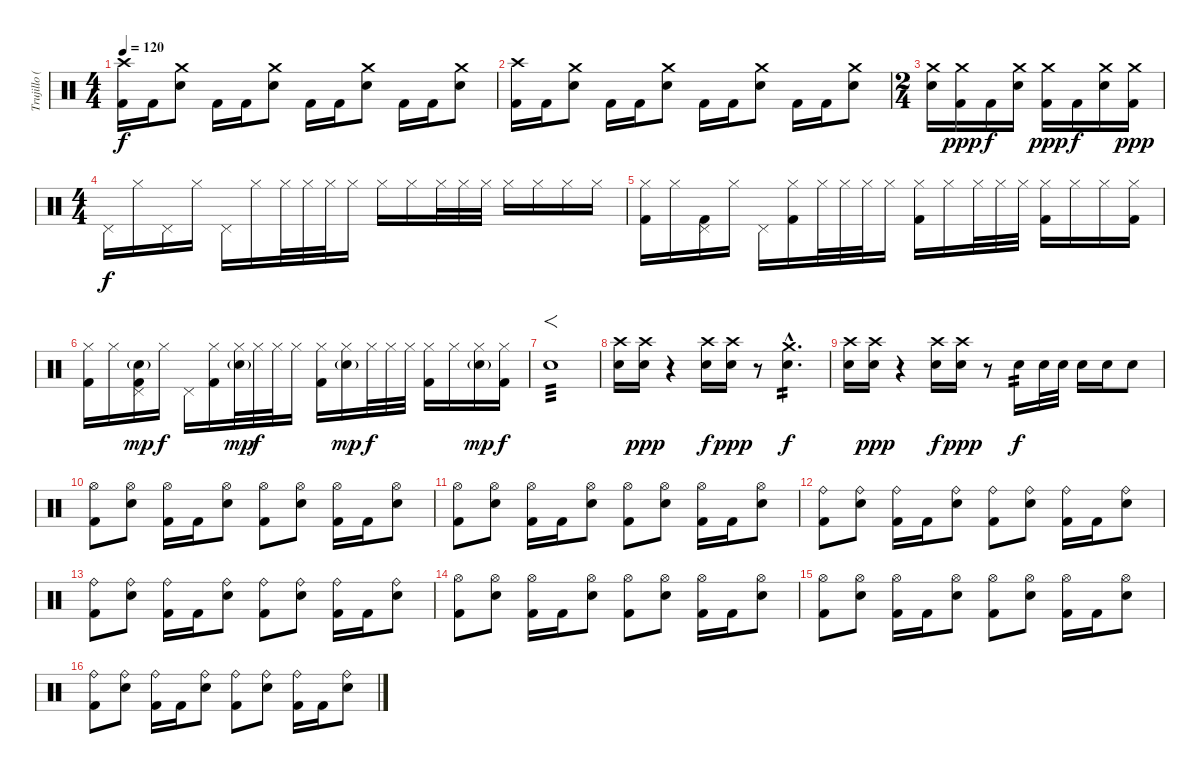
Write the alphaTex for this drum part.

\track ("Trujillo (Percussion)" "Trujillo (") {instrument percussion}
\staff {score}
\articulation defaults
\ts (4 4)
\tempo 120
\clef neutral
\ks c
("Crash high (hit)" "Kick (hit) 2").16{dy f} "Kick (hit) 2".16 ("Crash medium (hit)" "Electric Snare (hit)").8 "Kick (hit) 2".16 "Kick (hit) 2".16 ("Crash medium (hit)" "Electric Snare (hit)").8 "Kick (hit) 2".16 "Kick (hit) 2".16 ("Crash medium (hit)" "Electric Snare (hit)").8 "Kick (hit) 2".16 "Kick (hit) 2".16 ("Crash medium (hit)" "Electric Snare (hit)").8 |
("Crash high (hit)" "Kick (hit) 2").16 "Kick (hit) 2".16 ("Crash medium (hit)" "Electric Snare (hit)").8 "Kick (hit) 2".16 "Kick (hit) 2".16 ("Crash medium (hit)" "Electric Snare (hit)").8 "Kick (hit) 2".16 "Kick (hit) 2".16 ("Crash medium (hit)" "Electric Snare (hit)").8 "Kick (hit) 2".16 "Kick (hit) 2".16 ("Crash medium (hit)" "Electric Snare (hit)").8 |
\ts (2 4)
("Crash medium (hit)" "Electric Snare (hit)").16 ("Crash medium (hit)" "Kick (hit) 2").16{dy ppp} "Kick (hit) 2".16{dy f} ("Crash medium (hit)" "Electric Snare (hit)").16 ("Crash medium (hit)" "Kick (hit) 2").16{dy ppp} "Kick (hit) 2".16{dy f} ("Crash medium (hit)" "Electric Snare (hit)").16 ("Crash medium (hit)" "Kick (hit) 2").16{dy ppp} |
\ts (4 4)
"Pedal Hi-Hat (hit)".16{dy f} "Hi-Hat (closed)".16 "Pedal Hi-Hat (hit)".16 "Hi-Hat (closed)".16 "Pedal Hi-Hat (hit)".16 "Hi-Hat (closed)".16 "Hi-Hat (closed)".32 "Hi-Hat (closed)".32 "Hi-Hat (closed)".32 "Hi-Hat (closed)".16 "Hi-Hat (closed)".16 "Hi-Hat (closed)".16 "Hi-Hat (closed)".32 "Hi-Hat (closed)".32 "Hi-Hat (closed)".32 "Hi-Hat (closed)".16 "Hi-Hat (closed)".16 "Hi-Hat (closed)".16 "Hi-Hat (closed)".16 |
("Hi-Hat (closed)" "Kick (hit) 2").16 "Hi-Hat (closed)".16 ("Pedal Hi-Hat (hit)" "Kick (hit) 2").16 "Hi-Hat (closed)".16 "Pedal Hi-Hat (hit)".16 ("Hi-Hat (closed)" "Kick (hit) 2").16 "Hi-Hat (closed)".32 "Hi-Hat (closed)".32 "Hi-Hat (closed)".32 "Hi-Hat (closed)".16 ("Hi-Hat (closed)" "Kick (hit) 2").16 "Hi-Hat (closed)".16 "Hi-Hat (closed)".32 "Hi-Hat (closed)".32 "Hi-Hat (closed)".32 ("Hi-Hat (closed)" "Kick (hit) 2").16 "Hi-Hat (closed)".16 "Hi-Hat (closed)".16 ("Hi-Hat (closed)" "Kick (hit) 2").16 |
("Hi-Hat (closed)" "Kick (hit) 2").16 "Hi-Hat (closed)".16 ("Pedal Hi-Hat (hit)" "Electric Snare (hit)"{g} "Kick (hit) 2").16{dy mp} "Hi-Hat (closed)".16{dy f} "Pedal Hi-Hat (hit)".16 ("Hi-Hat (closed)" "Kick (hit) 2").16 ("Hi-Hat (closed)" "Electric Snare (hit)"{g}).32{dy mp} "Hi-Hat (closed)".32{dy f} "Hi-Hat (closed)".32 "Hi-Hat (closed)".16 ("Hi-Hat (closed)" "Kick (hit) 2").16 ("Hi-Hat (closed)" "Electric Snare (hit)"{g}).16{dy mp} "Hi-Hat (closed)".32{dy f} "Hi-Hat (closed)".32 "Hi-Hat (closed)".32 ("Hi-Hat (closed)" "Kick (hit) 2").16 "Hi-Hat (closed)".16 ("Hi-Hat (closed)" "Electric Snare (hit)"{g}).16{dy mp} ("Hi-Hat (closed)" "Kick (hit) 2").16{dy f} |
"Electric Snare (hit)".1{f tp 3} |
("Crash high (hit)" "Electric Snare (hit)").16 ("Crash high (hit)" "Electric Snare (hit)").16{dy ppp} r.4 ("Crash high (hit)" "Electric Snare (hit)").16{dy f} ("Crash high (hit)" "Electric Snare (hit)").16{dy ppp} r.8 ("Crash medium (hit)"{hac} "Electric Snare (hit)"{hac}).4{d tp 2 dy f} |
("Crash high (hit)" "Electric Snare (hit)").16 ("Crash high (hit)" "Electric Snare (hit)").16{dy ppp} r.4 ("Crash high (hit)" "Electric Snare (hit)").16{dy f} ("Crash high (hit)" "Electric Snare (hit)").16{dy ppp} r.8 "Electric Snare (hit)".16{tp 2 dy f} "Electric Snare (hit)".32 "Electric Snare (hit)".32 "Electric Snare (hit)".16 "Electric Snare (hit)".16 "Electric Snare (hit)".8 |
("Hi-Hat (open)" "Kick (hit) 2").8 ("Hi-Hat (open)" "Electric Snare (hit)").8 ("Hi-Hat (open)" "Kick (hit) 2").16 "Kick (hit) 2".16 ("Hi-Hat (open)" "Electric Snare (hit)").8 ("Hi-Hat (open)" "Kick (hit) 2").8 ("Hi-Hat (open)" "Electric Snare (hit)").8 ("Hi-Hat (open)" "Kick (hit) 2").16 "Kick (hit) 2".16 ("Hi-Hat (open)" "Electric Snare (hit)").8 |
("Hi-Hat (open)" "Kick (hit) 2").8 ("Hi-Hat (open)" "Electric Snare (hit)").8 ("Hi-Hat (open)" "Kick (hit) 2").16 "Kick (hit) 2".16 ("Hi-Hat (open)" "Electric Snare (hit)").8 ("Hi-Hat (open)" "Kick (hit) 2").8 ("Hi-Hat (open)" "Electric Snare (hit)").8 ("Hi-Hat (open)" "Kick (hit) 2").16 "Kick (hit) 2".16 ("Hi-Hat (open)" "Electric Snare (hit)").8 |
("Ride (bell)" "Kick (hit) 2").8 ("Ride (bell)" "Electric Snare (hit)").8 ("Ride (bell)" "Kick (hit) 2").16 "Kick (hit) 2".16 ("Ride (bell)" "Electric Snare (hit)").8 ("Ride (bell)" "Kick (hit) 2").8 ("Ride (bell)" "Electric Snare (hit)").8 ("Ride (bell)" "Kick (hit) 2").16 "Kick (hit) 2".16 ("Ride (bell)" "Electric Snare (hit)").8 |
("Ride (bell)" "Kick (hit) 2").8 ("Ride (bell)" "Electric Snare (hit)").8 ("Ride (bell)" "Kick (hit) 2").16 "Kick (hit) 2".16 ("Ride (bell)" "Electric Snare (hit)").8 ("Ride (bell)" "Kick (hit) 2").8 ("Ride (bell)" "Electric Snare (hit)").8 ("Ride (bell)" "Kick (hit) 2").16 "Kick (hit) 2".16 ("Ride (bell)" "Electric Snare (hit)").8 |
("Hi-Hat (open)" "Kick (hit) 2").8 ("Hi-Hat (open)" "Electric Snare (hit)").8 ("Hi-Hat (open)" "Kick (hit) 2").16 "Kick (hit) 2".16 ("Hi-Hat (open)" "Electric Snare (hit)").8 ("Hi-Hat (open)" "Kick (hit) 2").8 ("Hi-Hat (open)" "Electric Snare (hit)").8 ("Hi-Hat (open)" "Kick (hit) 2").16 "Kick (hit) 2".16 ("Hi-Hat (open)" "Electric Snare (hit)").8 |
("Hi-Hat (open)" "Kick (hit) 2").8 ("Hi-Hat (open)" "Electric Snare (hit)").8 ("Hi-Hat (open)" "Kick (hit) 2").16 "Kick (hit) 2".16 ("Hi-Hat (open)" "Electric Snare (hit)").8 ("Hi-Hat (open)" "Kick (hit) 2").8 ("Hi-Hat (open)" "Electric Snare (hit)").8 ("Hi-Hat (open)" "Kick (hit) 2").16 "Kick (hit) 2".16 ("Hi-Hat (open)" "Electric Snare (hit)").8 |
("Ride (bell)" "Kick (hit) 2").8 ("Ride (bell)" "Electric Snare (hit)").8 ("Ride (bell)" "Kick (hit) 2").16 "Kick (hit) 2".16 ("Ride (bell)" "Electric Snare (hit)").8 ("Ride (bell)" "Kick (hit) 2").8 ("Ride (bell)" "Electric Snare (hit)").8 ("Ride (bell)" "Kick (hit) 2").16 "Kick (hit) 2".16 ("Ride (bell)" "Electric Snare (hit)").8
